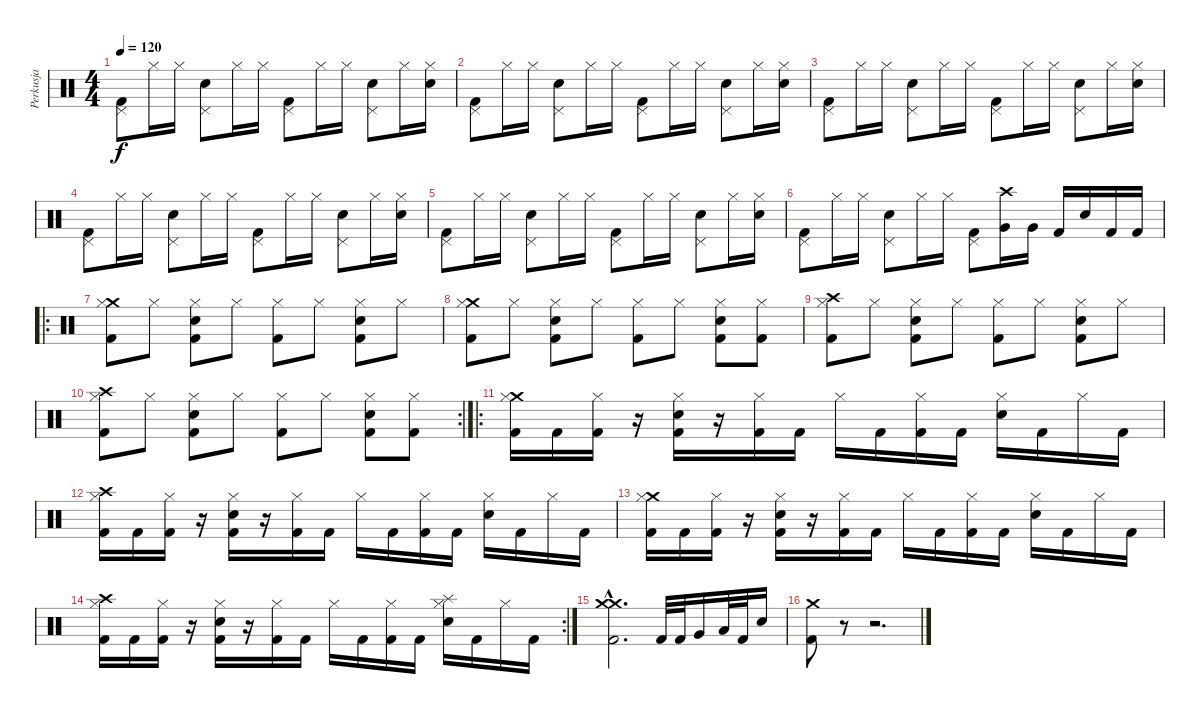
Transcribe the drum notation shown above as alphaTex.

\track ("Perkusja" "Perkusja") {instrument percussion}
\staff {score}
\articulation defaults
\ts (4 4)
\tempo 120
\clef neutral
\ks c
("Pedal Hi-Hat (hit)" "Kick (hit) 2").8{dy f} "Hi-Hat (closed)".16 "Hi-Hat (closed)".16 ("Pedal Hi-Hat (hit)" "Electric Snare (hit)").8 "Hi-Hat (closed)".16 "Hi-Hat (closed)".16 ("Pedal Hi-Hat (hit)" "Kick (hit) 2").8 "Hi-Hat (closed)".16 "Hi-Hat (closed)".16 ("Pedal Hi-Hat (hit)" "Electric Snare (hit)").8 "Hi-Hat (closed)".16 ("Hi-Hat (closed)" "Electric Snare (hit)").16 |
("Pedal Hi-Hat (hit)" "Kick (hit) 2").8 "Hi-Hat (closed)".16 "Hi-Hat (closed)".16 ("Pedal Hi-Hat (hit)" "Electric Snare (hit)").8 "Hi-Hat (closed)".16 "Hi-Hat (closed)".16 ("Pedal Hi-Hat (hit)" "Kick (hit) 2").8 "Hi-Hat (closed)".16 "Hi-Hat (closed)".16 ("Pedal Hi-Hat (hit)" "Electric Snare (hit)").8 "Hi-Hat (closed)".16 ("Hi-Hat (closed)" "Electric Snare (hit)").16 |
("Pedal Hi-Hat (hit)" "Kick (hit) 2").8 "Hi-Hat (closed)".16 "Hi-Hat (closed)".16 ("Pedal Hi-Hat (hit)" "Electric Snare (hit)").8 "Hi-Hat (closed)".16 "Hi-Hat (closed)".16 ("Pedal Hi-Hat (hit)" "Kick (hit) 2").8 "Hi-Hat (closed)".16 "Hi-Hat (closed)".16 ("Pedal Hi-Hat (hit)" "Electric Snare (hit)").8 "Hi-Hat (closed)".16 ("Hi-Hat (closed)" "Electric Snare (hit)").16 |
("Pedal Hi-Hat (hit)" "Kick (hit) 2").8 "Hi-Hat (closed)".16 "Hi-Hat (closed)".16 ("Pedal Hi-Hat (hit)" "Electric Snare (hit)").8 "Hi-Hat (closed)".16 "Hi-Hat (closed)".16 ("Pedal Hi-Hat (hit)" "Kick (hit) 2").8 "Hi-Hat (closed)".16 "Hi-Hat (closed)".16 ("Pedal Hi-Hat (hit)" "Electric Snare (hit)").8 "Hi-Hat (closed)".16 ("Hi-Hat (closed)" "Electric Snare (hit)").16 |
("Pedal Hi-Hat (hit)" "Kick (hit) 2").8 "Hi-Hat (closed)".16 "Hi-Hat (closed)".16 ("Pedal Hi-Hat (hit)" "Electric Snare (hit)").8 "Hi-Hat (closed)".16 "Hi-Hat (closed)".16 ("Pedal Hi-Hat (hit)" "Kick (hit) 2").8 "Hi-Hat (closed)".16 "Hi-Hat (closed)".16 ("Pedal Hi-Hat (hit)" "Electric Snare (hit)").8 "Hi-Hat (closed)".16 ("Hi-Hat (closed)" "Electric Snare (hit)").16 |
("Pedal Hi-Hat (hit)" "Kick (hit) 2").8 "Hi-Hat (closed)".16 "Hi-Hat (closed)".16 ("Pedal Hi-Hat (hit)" "Electric Snare (hit)").8 "Hi-Hat (closed)".16 "Hi-Hat (closed)".16 ("Pedal Hi-Hat (hit)" "Kick (hit) 2").8 ("Crash high (hit)" "Very Low Tom (hit)").16 "Very Low Tom (hit)".16 "Kick (hit) 2".16 "Electric Snare (hit)".16 "Kick (hit) 2".16 "Kick (hit) 2".16 |
\ro
("Crash medium (hit)" "Hi-Hat (closed)" "Kick (hit) 2").8 "Hi-Hat (closed)".8 ("Hi-Hat (closed)" "Electric Snare (hit)" "Kick (hit) 2").8 "Hi-Hat (closed)".8 ("Hi-Hat (closed)" "Kick (hit) 2").8 "Hi-Hat (closed)".8 ("Hi-Hat (closed)" "Electric Snare (hit)" "Kick (hit) 2").8 "Hi-Hat (closed)".8 |
("Crash medium (hit)" "Hi-Hat (closed)" "Kick (hit) 2").8 "Hi-Hat (closed)".8 ("Hi-Hat (closed)" "Electric Snare (hit)" "Kick (hit) 2").8 "Hi-Hat (closed)".8 ("Hi-Hat (closed)" "Kick (hit) 2").8 "Hi-Hat (closed)".8 ("Hi-Hat (closed)" "Electric Snare (hit)" "Kick (hit) 2").8 ("Hi-Hat (closed)" "Kick (hit) 2").8 |
("Crash high (hit)" "Hi-Hat (closed)" "Kick (hit) 2").8 "Hi-Hat (closed)".8 ("Hi-Hat (closed)" "Electric Snare (hit)" "Kick (hit) 2").8 "Hi-Hat (closed)".8 ("Hi-Hat (closed)" "Kick (hit) 2").8 "Hi-Hat (closed)".8 ("Hi-Hat (closed)" "Electric Snare (hit)" "Kick (hit) 2").8 "Hi-Hat (closed)".8 |
\rc 2
("Crash high (hit)" "Hi-Hat (closed)" "Kick (hit) 2").8 "Hi-Hat (closed)".8 ("Hi-Hat (closed)" "Electric Snare (hit)" "Kick (hit) 2").8 "Hi-Hat (closed)".8 ("Hi-Hat (closed)" "Kick (hit) 2").8 "Hi-Hat (closed)".8 ("Hi-Hat (closed)" "Electric Snare (hit)" "Kick (hit) 2").8 ("Hi-Hat (closed)" "Kick (hit) 2").8 |
\ro
("Crash medium (hit)" "Hi-Hat (closed)" "Kick (hit) 2").16 "Kick (hit) 2".16 ("Hi-Hat (closed)" "Kick (hit) 2").16 r.16 ("Hi-Hat (closed)" "Electric Snare (hit)" "Kick (hit) 2").16 r.16 ("Hi-Hat (closed)" "Kick (hit) 2").16 "Kick (hit) 2".16 "Hi-Hat (closed)".16 "Kick (hit) 2".16 ("Hi-Hat (closed)" "Kick (hit) 2").16 "Kick (hit) 2".16 ("Hi-Hat (closed)" "Electric Snare (hit)").16 "Kick (hit) 2".16 "Hi-Hat (closed)".16 "Kick (hit) 2".16 |
("Crash high (hit)" "Hi-Hat (closed)" "Kick (hit) 2").16 "Kick (hit) 2".16 ("Hi-Hat (closed)" "Kick (hit) 2").16 r.16 ("Hi-Hat (closed)" "Electric Snare (hit)" "Kick (hit) 2").16 r.16 ("Hi-Hat (closed)" "Kick (hit) 2").16 "Kick (hit) 2".16 "Hi-Hat (closed)".16 "Kick (hit) 2".16 ("Hi-Hat (closed)" "Kick (hit) 2").16 "Kick (hit) 2".16 ("Hi-Hat (closed)" "Electric Snare (hit)").16 "Kick (hit) 2".16 "Hi-Hat (closed)".16 "Kick (hit) 2".16 |
("Crash medium (hit)" "Hi-Hat (closed)" "Kick (hit) 2").16 "Kick (hit) 2".16 ("Hi-Hat (closed)" "Kick (hit) 2").16 r.16 ("Hi-Hat (closed)" "Electric Snare (hit)" "Kick (hit) 2").16 r.16 ("Hi-Hat (closed)" "Kick (hit) 2").16 "Kick (hit) 2".16 "Hi-Hat (closed)".16 "Kick (hit) 2".16 ("Hi-Hat (closed)" "Kick (hit) 2").16 "Kick (hit) 2".16 ("Hi-Hat (closed)" "Electric Snare (hit)").16 "Kick (hit) 2".16 "Hi-Hat (closed)".16 "Kick (hit) 2".16 |
\rc 2
("Crash high (hit)" "Hi-Hat (closed)" "Kick (hit) 2").16 "Kick (hit) 2".16 ("Hi-Hat (closed)" "Kick (hit) 2").16 r.16 ("Hi-Hat (closed)" "Electric Snare (hit)" "Kick (hit) 2").16 r.16 ("Hi-Hat (closed)" "Kick (hit) 2").16 "Kick (hit) 2".16 "Hi-Hat (closed)".16 "Kick (hit) 2".16 ("Hi-Hat (closed)" "Kick (hit) 2").16 "Kick (hit) 2".16 ("Splash (hit)" "Hi-Hat (closed)" "Electric Snare (hit)").16 "Kick (hit) 2".16 "Hi-Hat (closed)".16 "Kick (hit) 2".16 |
("Crash medium (hit)"{hac} "Crash medium (hit)"{hac} "Kick (hit) 2"{hac}).2{d} "Kick (hit) 2".32 "Kick (hit) 2".32 "Very Low Tom (hit)".16 "Low Floor Tom (hit)".32 "Kick (hit) 2".32 "Electric Snare (hit)".16 |
("Crash medium (hit)" "Kick (hit) 2").8 r.8 r.2{d}
